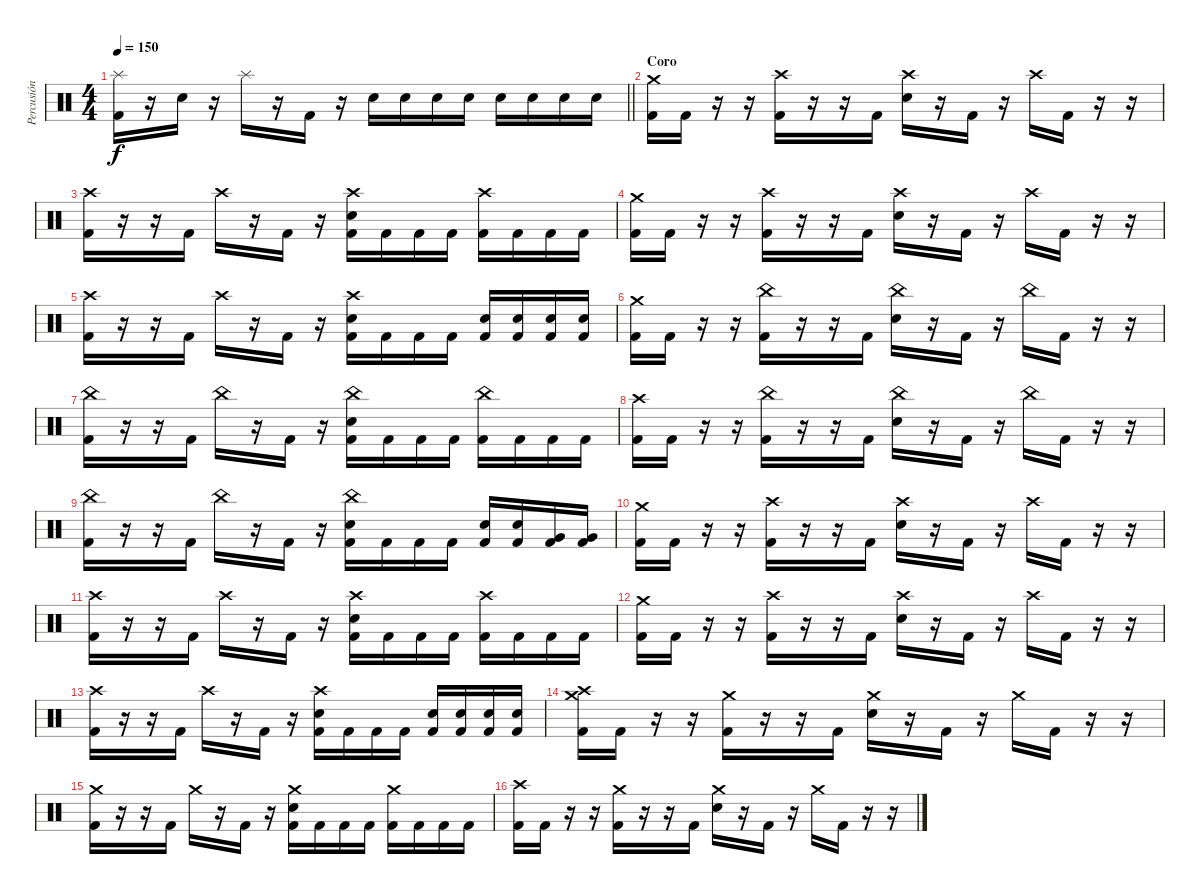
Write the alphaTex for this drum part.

\track ("Percusión" "Percusión") {instrument percussion}
\staff {score}
\articulation defaults
\ts (4 4)
\tempo 150
\clef neutral
\barLineRight lightlight
\ks c
("Splash (hit)" "Kick (hit) 2").16{dy f} r.16 "Electric Snare (hit)".16 r.16 "Splash (hit)".16 r.16 "Kick (hit) 2".16 r.16 "Electric Snare (hit)".16 "Electric Snare (hit)".16 "Electric Snare (hit)".16 "Electric Snare (hit)".16 "Electric Snare (hit)".16 "Electric Snare (hit)".16 "Electric Snare (hit)".16 "Electric Snare (hit)".16 |
\section ("" "Coro")
("Crash medium (hit)" "Kick (hit) 2").16 "Kick (hit) 2".16 r.16 r.16 ("Crash high (hit)" "Kick (hit) 2").16 r.16 r.16 "Kick (hit) 2".16 ("Crash high (hit)" "Electric Snare (hit)").16 r.16 "Kick (hit) 2".16 r.16 "Crash high (hit)".16 "Kick (hit) 2".16 r.16 r.16 |
("Crash high (hit)" "Kick (hit) 2").16 r.16 r.16 "Kick (hit) 2".16 "Crash high (hit)".16 r.16 "Kick (hit) 2".16 r.16 ("Crash high (hit)" "Electric Snare (hit)" "Kick (hit) 2").16 "Kick (hit) 2".16 "Kick (hit) 2".16 "Kick (hit) 2".16 ("Crash high (hit)" "Kick (hit) 2").16 "Kick (hit) 2".16 "Kick (hit) 2".16 "Kick (hit) 2".16 |
("Crash medium (hit)" "Kick (hit) 2").16 "Kick (hit) 2".16 r.16 r.16 ("Crash high (hit)" "Kick (hit) 2").16 r.16 r.16 "Kick (hit) 2".16 ("Crash high (hit)" "Electric Snare (hit)").16 r.16 "Kick (hit) 2".16 r.16 "Crash high (hit)".16 "Kick (hit) 2".16 r.16 r.16 |
("Crash high (hit)" "Kick (hit) 2").16 r.16 r.16 "Kick (hit) 2".16 "Crash high (hit)".16 r.16 "Kick (hit) 2".16 r.16 ("Crash high (hit)" "Electric Snare (hit)" "Kick (hit) 2").16 "Kick (hit) 2".16 "Kick (hit) 2".16 "Kick (hit) 2".16 ("Electric Snare (hit)" "Kick (hit) 2").16 ("Electric Snare (hit)" "Kick (hit) 2").16 ("Electric Snare (hit)" "Kick (hit) 2").16 ("Electric Snare (hit)" "Kick (hit) 2").16 |
("Crash medium (hit)" "Kick (hit) 2").16 "Kick (hit) 2".16 r.16 r.16 ("China (hit)" "Kick (hit) 2").16 r.16 r.16 "Kick (hit) 2".16 ("China (hit)" "Electric Snare (hit)").16 r.16 "Kick (hit) 2".16 r.16 "China (hit)".16 "Kick (hit) 2".16 r.16 r.16 |
("China (hit)" "Kick (hit) 2").16 r.16 r.16 "Kick (hit) 2".16 "China (hit)".16 r.16 "Kick (hit) 2".16 r.16 ("China (hit)" "Electric Snare (hit)" "Kick (hit) 2").16 "Kick (hit) 2".16 "Kick (hit) 2".16 "Kick (hit) 2".16 ("China (hit)" "Kick (hit) 2").16 "Kick (hit) 2".16 "Kick (hit) 2".16 "Kick (hit) 2".16 |
("Crash high (hit)" "Kick (hit) 2").16 "Kick (hit) 2".16 r.16 r.16 ("China (hit)" "Kick (hit) 2").16 r.16 r.16 "Kick (hit) 2".16 ("China (hit)" "Electric Snare (hit)").16 r.16 "Kick (hit) 2".16 r.16 "China (hit)".16 "Kick (hit) 2".16 r.16 r.16 |
("China (hit)" "Kick (hit) 2").16 r.16 r.16 "Kick (hit) 2".16 "China (hit)".16 r.16 "Kick (hit) 2".16 r.16 ("China (hit)" "Electric Snare (hit)" "Kick (hit) 2").16 "Kick (hit) 2".16 "Kick (hit) 2".16 "Kick (hit) 2".16 ("Electric Snare (hit)" "Kick (hit) 2").16 ("Electric Snare (hit)" "Kick (hit) 2").16 ("Very Low Tom (hit)" "Kick (hit) 2").16 ("Very Low Tom (hit)" "Kick (hit) 2").16 |
("Crash medium (hit)" "Kick (hit) 2").16 "Kick (hit) 2".16 r.16 r.16 ("Crash high (hit)" "Kick (hit) 2").16 r.16 r.16 "Kick (hit) 2".16 ("Crash high (hit)" "Electric Snare (hit)").16 r.16 "Kick (hit) 2".16 r.16 "Crash high (hit)".16 "Kick (hit) 2".16 r.16 r.16 |
("Crash high (hit)" "Kick (hit) 2").16 r.16 r.16 "Kick (hit) 2".16 "Crash high (hit)".16 r.16 "Kick (hit) 2".16 r.16 ("Crash high (hit)" "Electric Snare (hit)" "Kick (hit) 2").16 "Kick (hit) 2".16 "Kick (hit) 2".16 "Kick (hit) 2".16 ("Crash high (hit)" "Kick (hit) 2").16 "Kick (hit) 2".16 "Kick (hit) 2".16 "Kick (hit) 2".16 |
("Crash medium (hit)" "Kick (hit) 2").16 "Kick (hit) 2".16 r.16 r.16 ("Crash high (hit)" "Kick (hit) 2").16 r.16 r.16 "Kick (hit) 2".16 ("Crash high (hit)" "Electric Snare (hit)").16 r.16 "Kick (hit) 2".16 r.16 "Crash high (hit)".16 "Kick (hit) 2".16 r.16 r.16 |
("Crash high (hit)" "Kick (hit) 2").16 r.16 r.16 "Kick (hit) 2".16 "Crash high (hit)".16 r.16 "Kick (hit) 2".16 r.16 ("Crash high (hit)" "Electric Snare (hit)" "Kick (hit) 2").16 "Kick (hit) 2".16 "Kick (hit) 2".16 "Kick (hit) 2".16 ("Electric Snare (hit)" "Kick (hit) 2").16 ("Electric Snare (hit)" "Kick (hit) 2").16 ("Electric Snare (hit)" "Kick (hit) 2").16 ("Electric Snare (hit)" "Kick (hit) 2").16 |
("Crash medium (hit)" "Crash high (hit)" "Kick (hit) 2").16 "Kick (hit) 2".16 r.16 r.16 ("Crash medium (hit)" "Kick (hit) 2").16 r.16 r.16 "Kick (hit) 2".16 ("Crash medium (hit)" "Electric Snare (hit)").16 r.16 "Kick (hit) 2".16 r.16 "Crash medium (hit)".16 "Kick (hit) 2".16 r.16 r.16 |
("Crash medium (hit)" "Kick (hit) 2").16 r.16 r.16 "Kick (hit) 2".16 "Crash medium (hit)".16 r.16 "Kick (hit) 2".16 r.16 ("Crash medium (hit)" "Electric Snare (hit)" "Kick (hit) 2").16 "Kick (hit) 2".16 "Kick (hit) 2".16 "Kick (hit) 2".16 ("Crash medium (hit)" "Kick (hit) 2").16 "Kick (hit) 2".16 "Kick (hit) 2".16 "Kick (hit) 2".16 |
("Crash high (hit)" "Kick (hit) 2").16 "Kick (hit) 2".16 r.16 r.16 ("Crash medium (hit)" "Kick (hit) 2").16 r.16 r.16 "Kick (hit) 2".16 ("Crash medium (hit)" "Electric Snare (hit)").16 r.16 "Kick (hit) 2".16 r.16 "Crash medium (hit)".16 "Kick (hit) 2".16 r.16 r.16
